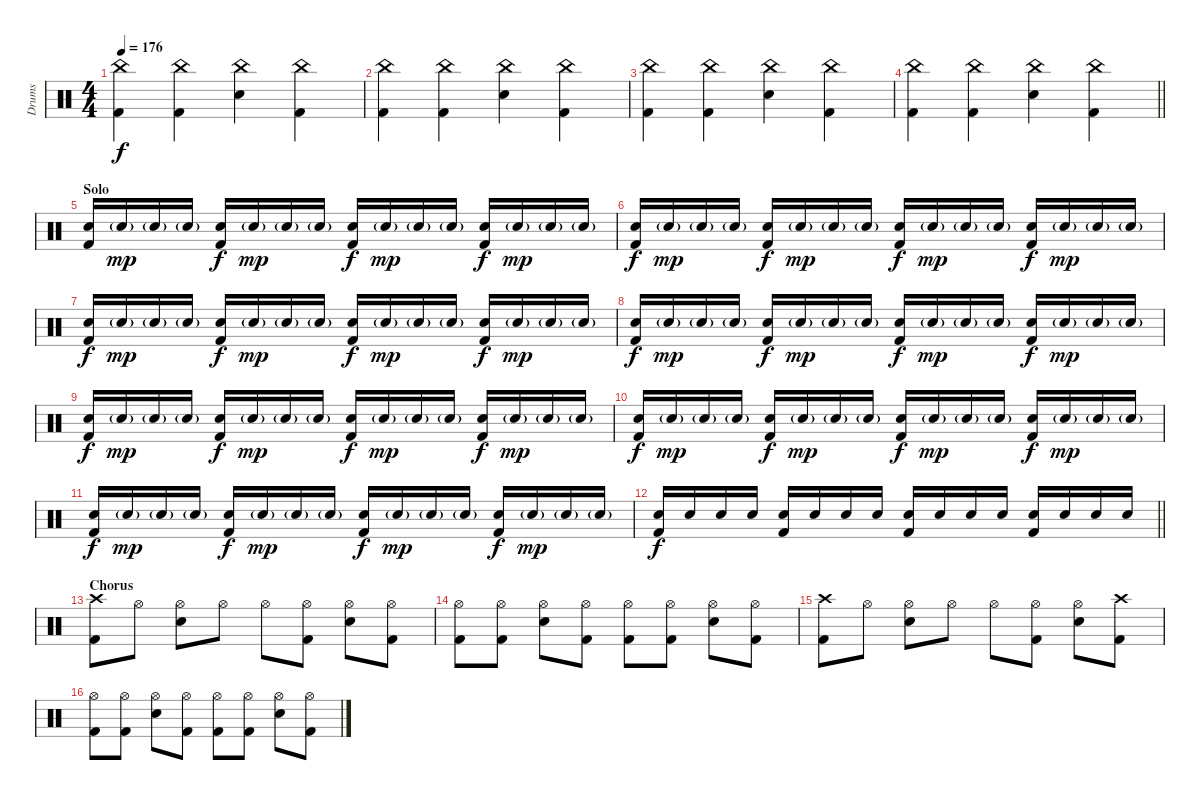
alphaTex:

\track ("Drums" "Drums") {instrument percussion}
\staff {score}
\articulation defaults
\ts (4 4)
\tempo 176
\clef neutral
\ks c
("China (hit)" "Kick (hit) 2").4{dy f} ("China (hit)" "Kick (hit) 2").4 ("China (hit)" "Electric Snare (hit)").4 ("China (hit)" "Kick (hit) 2").4 |
("China (hit)" "Kick (hit) 2").4 ("China (hit)" "Kick (hit) 2").4 ("China (hit)" "Electric Snare (hit)").4 ("China (hit)" "Kick (hit) 2").4 |
("China (hit)" "Kick (hit) 2").4 ("China (hit)" "Kick (hit) 2").4 ("China (hit)" "Electric Snare (hit)").4 ("China (hit)" "Kick (hit) 2").4 |
\barLineRight lightlight
("China (hit)" "Kick (hit) 2").4 ("China (hit)" "Kick (hit) 2").4 ("China (hit)" "Electric Snare (hit)").4 ("China (hit)" "Kick (hit) 2").4 |
\section ("" "Solo")
("Electric Snare (hit)" "Kick (hit) 2").16 "Electric Snare (hit)"{g}.16{dy mp} "Electric Snare (hit)"{g}.16 "Electric Snare (hit)"{g}.16 ("Electric Snare (hit)" "Kick (hit) 2").16{dy f} "Electric Snare (hit)"{g}.16{dy mp} "Electric Snare (hit)"{g}.16 "Electric Snare (hit)"{g}.16 ("Electric Snare (hit)" "Kick (hit) 2").16{dy f} "Electric Snare (hit)"{g}.16{dy mp} "Electric Snare (hit)"{g}.16 "Electric Snare (hit)"{g}.16 ("Electric Snare (hit)" "Kick (hit) 2").16{dy f} "Electric Snare (hit)"{g}.16{dy mp} "Electric Snare (hit)"{g}.16 "Electric Snare (hit)"{g}.16 |
("Electric Snare (hit)" "Kick (hit) 2").16{dy f} "Electric Snare (hit)"{g}.16{dy mp} "Electric Snare (hit)"{g}.16 "Electric Snare (hit)"{g}.16 ("Electric Snare (hit)" "Kick (hit) 2").16{dy f} "Electric Snare (hit)"{g}.16{dy mp} "Electric Snare (hit)"{g}.16 "Electric Snare (hit)"{g}.16 ("Electric Snare (hit)" "Kick (hit) 2").16{dy f} "Electric Snare (hit)"{g}.16{dy mp} "Electric Snare (hit)"{g}.16 "Electric Snare (hit)"{g}.16 ("Electric Snare (hit)" "Kick (hit) 2").16{dy f} "Electric Snare (hit)"{g}.16{dy mp} "Electric Snare (hit)"{g}.16 "Electric Snare (hit)"{g}.16 |
("Electric Snare (hit)" "Kick (hit) 2").16{dy f} "Electric Snare (hit)"{g}.16{dy mp} "Electric Snare (hit)"{g}.16 "Electric Snare (hit)"{g}.16 ("Electric Snare (hit)" "Kick (hit) 2").16{dy f} "Electric Snare (hit)"{g}.16{dy mp} "Electric Snare (hit)"{g}.16 "Electric Snare (hit)"{g}.16 ("Electric Snare (hit)" "Kick (hit) 2").16{dy f} "Electric Snare (hit)"{g}.16{dy mp} "Electric Snare (hit)"{g}.16 "Electric Snare (hit)"{g}.16 ("Electric Snare (hit)" "Kick (hit) 2").16{dy f} "Electric Snare (hit)"{g}.16{dy mp} "Electric Snare (hit)"{g}.16 "Electric Snare (hit)"{g}.16 |
("Electric Snare (hit)" "Kick (hit) 2").16{dy f} "Electric Snare (hit)"{g}.16{dy mp} "Electric Snare (hit)"{g}.16 "Electric Snare (hit)"{g}.16 ("Electric Snare (hit)" "Kick (hit) 2").16{dy f} "Electric Snare (hit)"{g}.16{dy mp} "Electric Snare (hit)"{g}.16 "Electric Snare (hit)"{g}.16 ("Electric Snare (hit)" "Kick (hit) 2").16{dy f} "Electric Snare (hit)"{g}.16{dy mp} "Electric Snare (hit)"{g}.16 "Electric Snare (hit)"{g}.16 ("Electric Snare (hit)" "Kick (hit) 2").16{dy f} "Electric Snare (hit)"{g}.16{dy mp} "Electric Snare (hit)"{g}.16 "Electric Snare (hit)"{g}.16 |
("Electric Snare (hit)" "Kick (hit) 2").16{dy f} "Electric Snare (hit)"{g}.16{dy mp} "Electric Snare (hit)"{g}.16 "Electric Snare (hit)"{g}.16 ("Electric Snare (hit)" "Kick (hit) 2").16{dy f} "Electric Snare (hit)"{g}.16{dy mp} "Electric Snare (hit)"{g}.16 "Electric Snare (hit)"{g}.16 ("Electric Snare (hit)" "Kick (hit) 2").16{dy f} "Electric Snare (hit)"{g}.16{dy mp} "Electric Snare (hit)"{g}.16 "Electric Snare (hit)"{g}.16 ("Electric Snare (hit)" "Kick (hit) 2").16{dy f} "Electric Snare (hit)"{g}.16{dy mp} "Electric Snare (hit)"{g}.16 "Electric Snare (hit)"{g}.16 |
("Electric Snare (hit)" "Kick (hit) 2").16{dy f} "Electric Snare (hit)"{g}.16{dy mp} "Electric Snare (hit)"{g}.16 "Electric Snare (hit)"{g}.16 ("Electric Snare (hit)" "Kick (hit) 2").16{dy f} "Electric Snare (hit)"{g}.16{dy mp} "Electric Snare (hit)"{g}.16 "Electric Snare (hit)"{g}.16 ("Electric Snare (hit)" "Kick (hit) 2").16{dy f} "Electric Snare (hit)"{g}.16{dy mp} "Electric Snare (hit)"{g}.16 "Electric Snare (hit)"{g}.16 ("Electric Snare (hit)" "Kick (hit) 2").16{dy f} "Electric Snare (hit)"{g}.16{dy mp} "Electric Snare (hit)"{g}.16 "Electric Snare (hit)"{g}.16 |
("Electric Snare (hit)" "Kick (hit) 2").16{dy f} "Electric Snare (hit)"{g}.16{dy mp} "Electric Snare (hit)"{g}.16 "Electric Snare (hit)"{g}.16 ("Electric Snare (hit)" "Kick (hit) 2").16{dy f} "Electric Snare (hit)"{g}.16{dy mp} "Electric Snare (hit)"{g}.16 "Electric Snare (hit)"{g}.16 ("Electric Snare (hit)" "Kick (hit) 2").16{dy f} "Electric Snare (hit)"{g}.16{dy mp} "Electric Snare (hit)"{g}.16 "Electric Snare (hit)"{g}.16 ("Electric Snare (hit)" "Kick (hit) 2").16{dy f} "Electric Snare (hit)"{g}.16{dy mp} "Electric Snare (hit)"{g}.16 "Electric Snare (hit)"{g}.16 |
\barLineRight lightlight
("Electric Snare (hit)" "Kick (hit) 2").16{dy f} "Electric Snare (hit)".16 "Electric Snare (hit)".16 "Electric Snare (hit)".16 ("Electric Snare (hit)" "Kick (hit) 2").16 "Electric Snare (hit)".16 "Electric Snare (hit)".16 "Electric Snare (hit)".16 ("Electric Snare (hit)" "Kick (hit) 2").16 "Electric Snare (hit)".16 "Electric Snare (hit)".16 "Electric Snare (hit)".16 ("Electric Snare (hit)" "Kick (hit) 2").16 "Electric Snare (hit)".16 "Electric Snare (hit)".16 "Electric Snare (hit)".16 |
\section ("" "Chorus")
("Crash high (hit)" "Kick (hit) 2").8 "Hi-Hat (open)".8 ("Hi-Hat (open)" "Electric Snare (hit)").8 "Hi-Hat (open)".8 "Hi-Hat (open)".8 ("Hi-Hat (open)" "Kick (hit) 2").8 ("Hi-Hat (open)" "Electric Snare (hit)").8 ("Hi-Hat (open)" "Kick (hit) 2").8 |
("Hi-Hat (open)" "Kick (hit) 2").8 ("Hi-Hat (open)" "Kick (hit) 2").8 ("Hi-Hat (open)" "Electric Snare (hit)").8 ("Hi-Hat (open)" "Kick (hit) 2").8 ("Hi-Hat (open)" "Kick (hit) 2").8 ("Hi-Hat (open)" "Kick (hit) 2").8 ("Hi-Hat (open)" "Electric Snare (hit)").8 ("Hi-Hat (open)" "Kick (hit) 2").8 |
("Crash high (hit)" "Kick (hit) 2").8 "Hi-Hat (open)".8 ("Hi-Hat (open)" "Electric Snare (hit)").8 "Hi-Hat (open)".8 "Hi-Hat (open)".8 ("Hi-Hat (open)" "Kick (hit) 2").8 ("Hi-Hat (open)" "Electric Snare (hit)").8 ("Crash high (hit)" "Kick (hit) 2").8 |
("Hi-Hat (open)" "Kick (hit) 2").8 ("Hi-Hat (open)" "Kick (hit) 2").8 ("Hi-Hat (open)" "Electric Snare (hit)").8 ("Hi-Hat (open)" "Kick (hit) 2").8 ("Hi-Hat (open)" "Kick (hit) 2").8 ("Hi-Hat (open)" "Kick (hit) 2").8 ("Hi-Hat (open)" "Electric Snare (hit)").8 ("Hi-Hat (open)" "Kick (hit) 2").8
